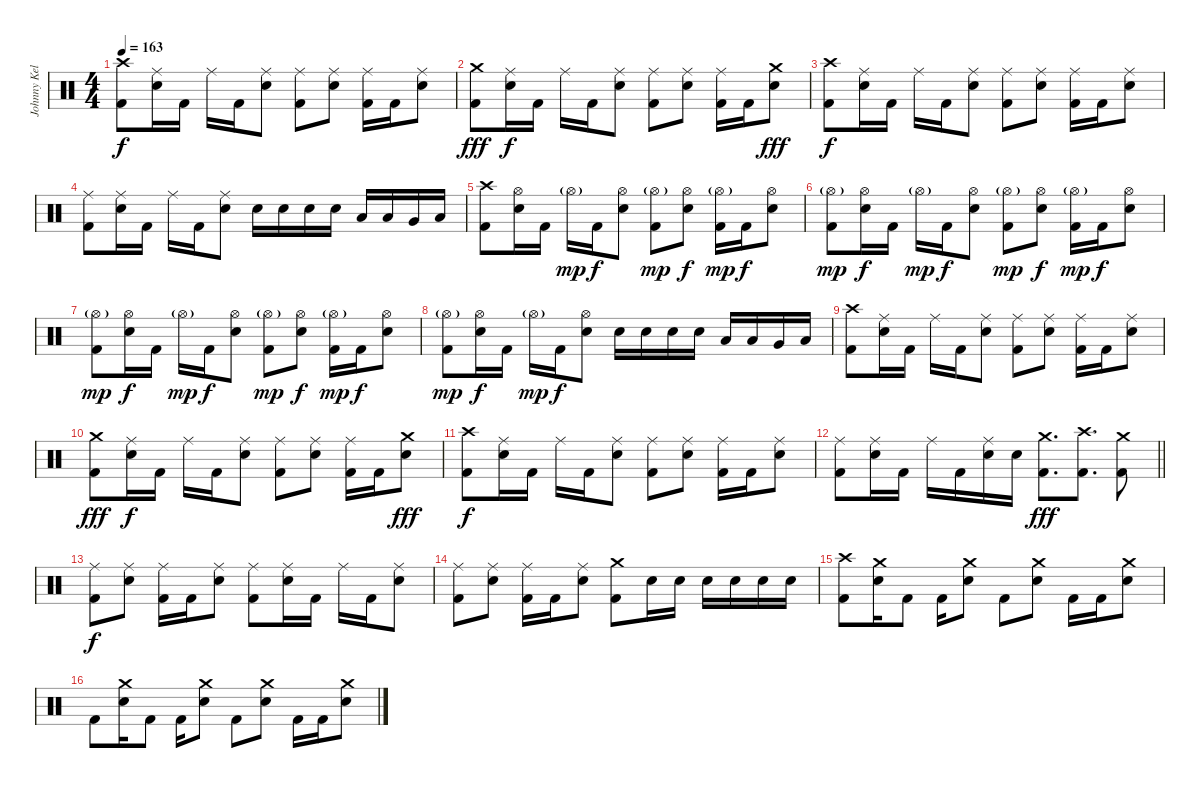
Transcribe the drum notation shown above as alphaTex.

\track ("Johnny Kelly" "Johnny Kel") {instrument percussion}
\staff {score}
\articulation defaults
\ts (4 4)
\tempo 163
\clef neutral
\ks c
("Crash high (hit)" "Kick (hit) 2").8{dy f} ("Ride (middle)" "Electric Snare (hit)").16 "Kick (hit) 2".16 "Ride (middle)".16 "Kick (hit) 2".16 ("Ride (middle)" "Electric Snare (hit)").8 ("Ride (middle)" "Kick (hit) 2").8 ("Ride (middle)" "Electric Snare (hit)").8 ("Ride (middle)" "Kick (hit) 2").16 "Kick (hit) 2".16 ("Ride (middle)" "Electric Snare (hit)").8 |
("Crash medium (hit)" "Kick (hit) 2").8{dy fff} ("Ride (middle)" "Electric Snare (hit)").16{dy f} "Kick (hit) 2".16 "Ride (middle)".16 "Kick (hit) 2".16 ("Ride (middle)" "Electric Snare (hit)").8 ("Ride (middle)" "Kick (hit) 2").8 ("Ride (middle)" "Electric Snare (hit)").8 ("Ride (middle)" "Kick (hit) 2").16 "Kick (hit) 2".16 ("Crash medium (hit)" "Electric Snare (hit)").8{dy fff} |
("Crash high (hit)" "Kick (hit) 2").8{dy f} ("Ride (middle)" "Electric Snare (hit)").16 "Kick (hit) 2".16 "Ride (middle)".16 "Kick (hit) 2".16 ("Ride (middle)" "Electric Snare (hit)").8 ("Ride (middle)" "Kick (hit) 2").8 ("Ride (middle)" "Electric Snare (hit)").8 ("Ride (middle)" "Kick (hit) 2").16 "Kick (hit) 2".16 ("Ride (middle)" "Electric Snare (hit)").8 |
("Ride (middle)" "Kick (hit) 2").8 ("Ride (middle)" "Electric Snare (hit)").16 "Kick (hit) 2".16 "Ride (middle)".16 "Kick (hit) 2".16 ("Ride (middle)" "Electric Snare (hit)").8 "Electric Snare (hit)".16 "Electric Snare (hit)".16 "Electric Snare (hit)".16 "Electric Snare (hit)".16 "Low Tom (hit)".16 "Low Tom (hit)".16 "Very Low Tom (hit)".16 "Low Floor Tom (hit)".16 |
("Crash high (hit)" "Kick (hit) 2").8 ("Hi-Hat (open)" "Electric Snare (hit)").16 "Kick (hit) 2".16 "Hi-Hat (open)"{g}.16{dy mp} "Kick (hit) 2".16{dy f} ("Hi-Hat (open)" "Electric Snare (hit)").8 ("Hi-Hat (open)"{g} "Kick (hit) 2").8{dy mp} ("Hi-Hat (open)" "Electric Snare (hit)").8{dy f} ("Hi-Hat (open)"{g} "Kick (hit) 2").16{dy mp} "Kick (hit) 2".16{dy f} ("Hi-Hat (open)" "Electric Snare (hit)").8 |
("Hi-Hat (open)"{g} "Kick (hit) 2").8{dy mp} ("Hi-Hat (open)" "Electric Snare (hit)").16{dy f} "Kick (hit) 2".16 "Hi-Hat (open)"{g}.16{dy mp} "Kick (hit) 2".16{dy f} ("Hi-Hat (open)" "Electric Snare (hit)").8 ("Hi-Hat (open)"{g} "Kick (hit) 2").8{dy mp} ("Hi-Hat (open)" "Electric Snare (hit)").8{dy f} ("Hi-Hat (open)"{g} "Kick (hit) 2").16{dy mp} "Kick (hit) 2".16{dy f} ("Hi-Hat (open)" "Electric Snare (hit)").8 |
("Hi-Hat (open)"{g} "Kick (hit) 2").8{dy mp} ("Hi-Hat (open)" "Electric Snare (hit)").16{dy f} "Kick (hit) 2".16 "Hi-Hat (open)"{g}.16{dy mp} "Kick (hit) 2".16{dy f} ("Hi-Hat (open)" "Electric Snare (hit)").8 ("Hi-Hat (open)"{g} "Kick (hit) 2").8{dy mp} ("Hi-Hat (open)" "Electric Snare (hit)").8{dy f} ("Hi-Hat (open)"{g} "Kick (hit) 2").16{dy mp} "Kick (hit) 2".16{dy f} ("Hi-Hat (open)" "Electric Snare (hit)").8 |
("Hi-Hat (open)"{g} "Kick (hit) 2").8{dy mp} ("Hi-Hat (open)" "Electric Snare (hit)").16{dy f} "Kick (hit) 2".16 "Hi-Hat (open)"{g}.16{dy mp} "Kick (hit) 2".16{dy f} ("Hi-Hat (open)" "Electric Snare (hit)").8 "Electric Snare (hit)".16 "Electric Snare (hit)".16 "Electric Snare (hit)".16 "Electric Snare (hit)".16 "Low Tom (hit)".16 "Low Tom (hit)".16 "Very Low Tom (hit)".16 "Low Floor Tom (hit)".16 |
("Crash high (hit)" "Kick (hit) 2").8 ("Ride (middle)" "Electric Snare (hit)").16 "Kick (hit) 2".16 "Ride (middle)".16 "Kick (hit) 2".16 ("Ride (middle)" "Electric Snare (hit)").8 ("Ride (middle)" "Kick (hit) 2").8 ("Ride (middle)" "Electric Snare (hit)").8 ("Ride (middle)" "Kick (hit) 2").16 "Kick (hit) 2".16 ("Ride (middle)" "Electric Snare (hit)").8 |
("Crash medium (hit)" "Kick (hit) 2").8{dy fff} ("Ride (middle)" "Electric Snare (hit)").16{dy f} "Kick (hit) 2".16 "Ride (middle)".16 "Kick (hit) 2".16 ("Ride (middle)" "Electric Snare (hit)").8 ("Ride (middle)" "Kick (hit) 2").8 ("Ride (middle)" "Electric Snare (hit)").8 ("Ride (middle)" "Kick (hit) 2").16 "Kick (hit) 2".16 ("Crash medium (hit)" "Electric Snare (hit)").8{dy fff} |
("Crash high (hit)" "Kick (hit) 2").8{dy f} ("Ride (middle)" "Electric Snare (hit)").16 "Kick (hit) 2".16 "Ride (middle)".16 "Kick (hit) 2".16 ("Ride (middle)" "Electric Snare (hit)").8 ("Ride (middle)" "Kick (hit) 2").8 ("Ride (middle)" "Electric Snare (hit)").8 ("Ride (middle)" "Kick (hit) 2").16 "Kick (hit) 2".16 ("Ride (middle)" "Electric Snare (hit)").8 |
\barLineRight lightlight
("Ride (middle)" "Kick (hit) 2").8 ("Ride (middle)" "Electric Snare (hit)").16 "Kick (hit) 2".16 "Ride (middle)".16 "Kick (hit) 2".16 ("Ride (middle)" "Electric Snare (hit)").16 "Electric Snare (hit)".16 ("Crash medium (hit)" "Kick (hit) 2").8{d dy fff} ("Crash high (hit)" "Kick (hit) 2").8{d} ("Crash medium (hit)" "Kick (hit) 2").8 |
\section ("" "")
("Ride (middle)" "Kick (hit) 2").8{dy f} ("Ride (middle)" "Electric Snare (hit)").8 ("Ride (middle)" "Kick (hit) 2").16 "Kick (hit) 2".16 ("Ride (middle)" "Electric Snare (hit)").8 ("Ride (middle)" "Kick (hit) 2").8 ("Ride (middle)" "Electric Snare (hit)").16 "Kick (hit) 2".16 "Ride (middle)".16 "Kick (hit) 2".16 ("Ride (middle)" "Electric Snare (hit)").8 |
("Ride (middle)" "Kick (hit) 2").8 ("Ride (middle)" "Electric Snare (hit)").8 ("Ride (middle)" "Kick (hit) 2").16 "Kick (hit) 2".16 ("Ride (middle)" "Electric Snare (hit)").8 ("Crash medium (hit)" "Kick (hit) 2").8 "Electric Snare (hit)".16 "Electric Snare (hit)".16 "Electric Snare (hit)".16 "Electric Snare (hit)".16 "Electric Snare (hit)".16 "Electric Snare (hit)".16 |
("Crash high (hit)" "Kick (hit) 2").8 ("Crash medium (hit)" "Electric Snare (hit)").16 "Kick (hit) 2".8 "Kick (hit) 2".16 ("Crash medium (hit)" "Electric Snare (hit)").8 "Kick (hit) 2".8 ("Crash medium (hit)" "Electric Snare (hit)").8 "Kick (hit) 2".16 "Kick (hit) 2".16 ("Crash medium (hit)" "Electric Snare (hit)").8 |
"Kick (hit) 2".8 ("Crash medium (hit)" "Electric Snare (hit)").16 "Kick (hit) 2".8 "Kick (hit) 2".16 ("Crash medium (hit)" "Electric Snare (hit)").8 "Kick (hit) 2".8 ("Crash medium (hit)" "Electric Snare (hit)").8 "Kick (hit) 2".16 "Kick (hit) 2".16 ("Crash medium (hit)" "Electric Snare (hit)").8
